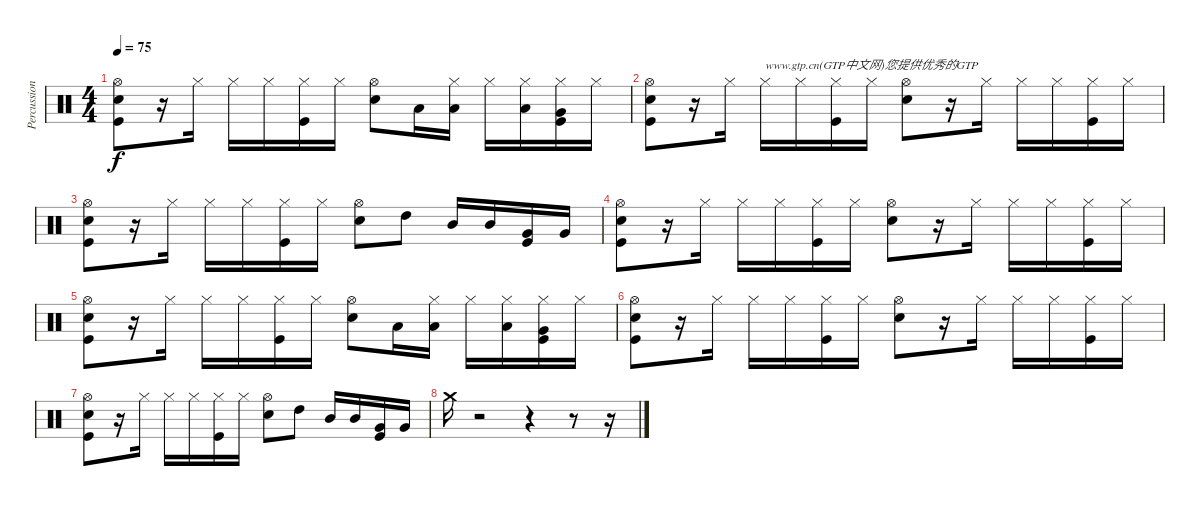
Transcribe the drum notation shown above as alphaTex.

\track ("Percussion" "Percussion") {instrument percussion}
\staff {score}
\articulation defaults
\ts (4 4)
\tempo 75
\clef neutral
\ks c
("Hi-Hat (open)" "Kick (hit)" "Snare (hit) 2").8{dy f} r.16 "Hi-Hat (closed)".16 "Hi-Hat (closed)".16 "Hi-Hat (closed)".16 ("Kick (hit)" "Hi-Hat (closed)").16 "Hi-Hat (closed)".16 ("Snare (hit) 2" "Hi-Hat (open)").8 "Low Tom (hit)".16 ("Low Tom (hit)" "Hi-Hat (closed)").16 "Hi-Hat (closed)".16 ("Low Tom (hit)" "Hi-Hat (closed)").16 ("Very Low Tom (hit)" "Kick (hit)" "Hi-Hat (closed)").16 "Hi-Hat (closed)".16 |
("Hi-Hat (open)" "Kick (hit)" "Snare (hit) 2").8 r.16 "Hi-Hat (closed)".16 "Hi-Hat (closed)".16{txt "www.gtp.cn(GTP中文网)您提供优秀的GTP"} "Hi-Hat (closed)".16 ("Kick (hit)" "Hi-Hat (closed)").16 "Hi-Hat (closed)".16 ("Snare (hit) 2" "Hi-Hat (open)").8 r.16 "Hi-Hat (closed)".16 "Hi-Hat (closed)".16 "Hi-Hat (closed)".16 ("Kick (hit)" "Hi-Hat (closed)").16 "Hi-Hat (closed)".16 |
("Hi-Hat (open)" "Kick (hit)" "Snare (hit) 2").8 r.16 "Hi-Hat (closed)".16 "Hi-Hat (closed)".16 "Hi-Hat (closed)".16 ("Kick (hit)" "Hi-Hat (closed)").16 "Hi-Hat (closed)".16 ("Snare (hit) 2" "Hi-Hat (open)").8 "High Tom (hit)".8 "Mid Tom (hit)".16 "Mid Tom (hit)".16 ("Very Low Tom (hit)" "Kick (hit)").16 "Very Low Tom (hit)".16 |
("Hi-Hat (open)" "Kick (hit)" "Snare (hit) 2").8 r.16 "Hi-Hat (closed)".16 "Hi-Hat (closed)".16 "Hi-Hat (closed)".16 ("Kick (hit)" "Hi-Hat (closed)").16 "Hi-Hat (closed)".16 ("Snare (hit) 2" "Hi-Hat (open)").8 r.16 "Hi-Hat (closed)".16 "Hi-Hat (closed)".16 "Hi-Hat (closed)".16 ("Kick (hit)" "Hi-Hat (closed)").16 "Hi-Hat (closed)".16 |
("Hi-Hat (open)" "Kick (hit)" "Snare (hit) 2").8 r.16 "Hi-Hat (closed)".16 "Hi-Hat (closed)".16 "Hi-Hat (closed)".16 ("Kick (hit)" "Hi-Hat (closed)").16 "Hi-Hat (closed)".16 ("Snare (hit) 2" "Hi-Hat (open)").8 "Low Tom (hit)".16 ("Low Tom (hit)" "Hi-Hat (closed)").16 "Hi-Hat (closed)".16 ("Low Tom (hit)" "Hi-Hat (closed)").16 ("Very Low Tom (hit)" "Kick (hit)" "Hi-Hat (closed)").16 "Hi-Hat (closed)".16 |
("Hi-Hat (open)" "Kick (hit)" "Snare (hit) 2").8 r.16 "Hi-Hat (closed)".16 "Hi-Hat (closed)".16 "Hi-Hat (closed)".16 ("Kick (hit)" "Hi-Hat (closed)").16 "Hi-Hat (closed)".16 ("Snare (hit) 2" "Hi-Hat (open)").8 r.16 "Hi-Hat (closed)".16 "Hi-Hat (closed)".16 "Hi-Hat (closed)".16 ("Kick (hit)" "Hi-Hat (closed)").16 "Hi-Hat (closed)".16 |
("Hi-Hat (open)" "Kick (hit)" "Snare (hit) 2").8 r.16 "Hi-Hat (closed)".16 "Hi-Hat (closed)".16 "Hi-Hat (closed)".16 ("Kick (hit)" "Hi-Hat (closed)").16 "Hi-Hat (closed)".16 ("Snare (hit) 2" "Hi-Hat (open)").8 "High Tom (hit)".8 "Mid Tom (hit)".16 "Mid Tom (hit)".16 ("Very Low Tom (hit)" "Kick (hit)").16 "Very Low Tom (hit)".16 |
"Crash medium (hit)".16 r.2 r.4 r.8 r.16
